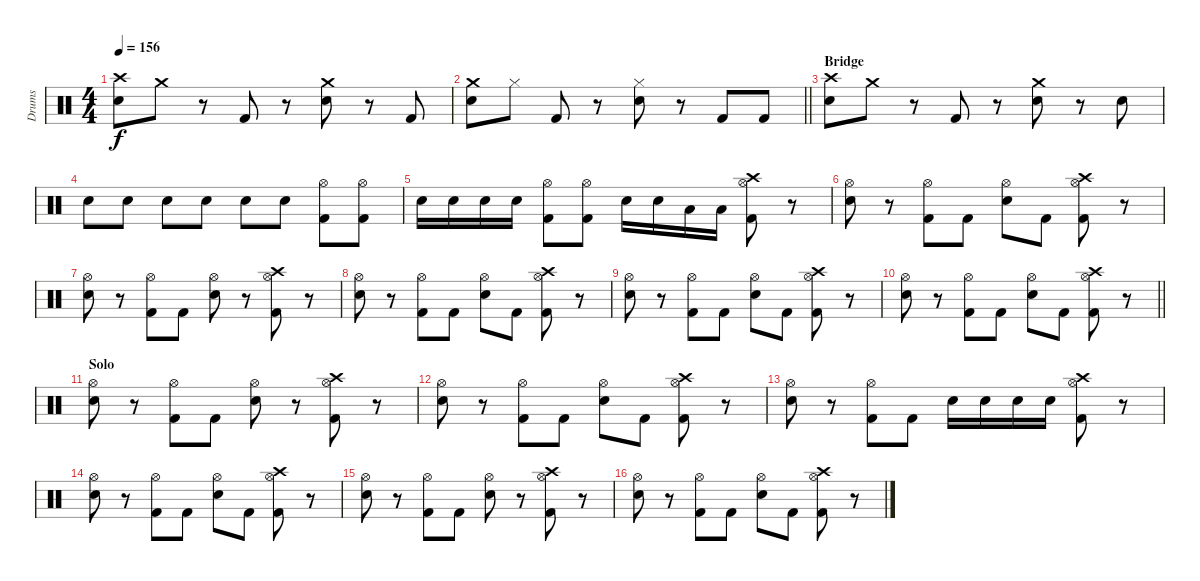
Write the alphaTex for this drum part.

\track ("Drums" "Drums") {instrument percussion}
\staff {score}
\articulation defaults
\ts (4 4)
\tempo 156
\clef neutral
\ks c
("Crash high (hit)" "Electric Snare (hit)").8{dy f} "Crash medium (hit)".8 r.8 "Kick (hit) 2".8 r.8 ("Crash medium (hit)" "Electric Snare (hit)").8 r.8 "Kick (hit) 2".8 |
\barLineRight lightlight
("Crash medium (hit)" "Electric Snare (hit)").8 "Hi-Hat (closed)".8 "Kick (hit) 2".8 r.8 ("Hi-Hat (closed)" "Electric Snare (hit)").8 r.8 "Kick (hit) 2".8 "Kick (hit) 2".8 |
\section ("" "Bridge")
("Crash high (hit)" "Electric Snare (hit)").8 "Crash medium (hit)".8 r.8 "Kick (hit) 2".8 r.8 ("Crash medium (hit)" "Electric Snare (hit)").8 r.8 "Electric Snare (hit)".8 |
"Electric Snare (hit)".8 "Electric Snare (hit)".8 "Electric Snare (hit)".8 "Electric Snare (hit)".8 "Electric Snare (hit)".8 "Electric Snare (hit)".8 ("Hi-Hat (open)" "Kick (hit) 2").8 ("Hi-Hat (open)" "Kick (hit) 2").8 |
"Electric Snare (hit)".16 "Electric Snare (hit)".16 "Electric Snare (hit)".16 "Electric Snare (hit)".16 ("Hi-Hat (open)" "Kick (hit) 2").8 ("Hi-Hat (open)" "Kick (hit) 2").8 "Electric Snare (hit)".16 "Electric Snare (hit)".16 "Low Tom (hit)".16 "Low Tom (hit)".16 ("Crash high (hit)" "Hi-Hat (open)" "Kick (hit) 2").8 r.8 |
("Hi-Hat (open)" "Electric Snare (hit)").8 r.8 ("Hi-Hat (open)" "Kick (hit) 2").8 "Kick (hit) 2".8 ("Hi-Hat (open)" "Electric Snare (hit)").8 "Kick (hit) 2".8 ("Crash high (hit)" "Hi-Hat (open)" "Kick (hit) 2").8 r.8 |
("Hi-Hat (open)" "Electric Snare (hit)").8 r.8 ("Hi-Hat (open)" "Kick (hit) 2").8 "Kick (hit) 2".8 ("Hi-Hat (open)" "Electric Snare (hit)").8 r.8 ("Crash high (hit)" "Hi-Hat (open)" "Kick (hit) 2").8 r.8 |
("Hi-Hat (open)" "Electric Snare (hit)").8 r.8 ("Hi-Hat (open)" "Kick (hit) 2").8 "Kick (hit) 2".8 ("Hi-Hat (open)" "Electric Snare (hit)").8 "Kick (hit) 2".8 ("Crash high (hit)" "Hi-Hat (open)" "Kick (hit) 2").8 r.8 |
("Hi-Hat (open)" "Electric Snare (hit)").8 r.8 ("Hi-Hat (open)" "Kick (hit) 2").8 "Kick (hit) 2".8 ("Hi-Hat (open)" "Electric Snare (hit)").8 "Kick (hit) 2".8 ("Crash high (hit)" "Hi-Hat (open)" "Kick (hit) 2").8 r.8 |
\barLineRight lightlight
("Hi-Hat (open)" "Electric Snare (hit)").8 r.8 ("Hi-Hat (open)" "Kick (hit) 2").8 "Kick (hit) 2".8 ("Hi-Hat (open)" "Electric Snare (hit)").8 "Kick (hit) 2".8 ("Crash high (hit)" "Hi-Hat (open)" "Kick (hit) 2").8 r.8 |
\section ("" "Solo")
("Hi-Hat (open)" "Electric Snare (hit)").8 r.8 ("Hi-Hat (open)" "Kick (hit) 2").8 "Kick (hit) 2".8 ("Hi-Hat (open)" "Electric Snare (hit)").8 r.8 ("Crash high (hit)" "Hi-Hat (open)" "Kick (hit) 2").8 r.8 |
("Hi-Hat (open)" "Electric Snare (hit)").8 r.8 ("Hi-Hat (open)" "Kick (hit) 2").8 "Kick (hit) 2".8 ("Hi-Hat (open)" "Electric Snare (hit)").8 "Kick (hit) 2".8 ("Crash high (hit)" "Hi-Hat (open)" "Kick (hit) 2").8 r.8 |
("Hi-Hat (open)" "Electric Snare (hit)").8 r.8 ("Hi-Hat (open)" "Kick (hit) 2").8 "Kick (hit) 2".8 "Electric Snare (hit)".16 "Electric Snare (hit)".16 "Electric Snare (hit)".16 "Electric Snare (hit)".16 ("Crash high (hit)" "Hi-Hat (open)" "Kick (hit) 2").8 r.8 |
("Hi-Hat (open)" "Electric Snare (hit)").8 r.8 ("Hi-Hat (open)" "Kick (hit) 2").8 "Kick (hit) 2".8 ("Hi-Hat (open)" "Electric Snare (hit)").8 "Kick (hit) 2".8 ("Crash high (hit)" "Hi-Hat (open)" "Kick (hit) 2").8 r.8 |
("Hi-Hat (open)" "Electric Snare (hit)").8 r.8 ("Hi-Hat (open)" "Kick (hit) 2").8 "Kick (hit) 2".8 ("Hi-Hat (open)" "Electric Snare (hit)").8 r.8 ("Crash high (hit)" "Hi-Hat (open)" "Kick (hit) 2").8 r.8 |
("Hi-Hat (open)" "Electric Snare (hit)").8 r.8 ("Hi-Hat (open)" "Kick (hit) 2").8 "Kick (hit) 2".8 ("Hi-Hat (open)" "Electric Snare (hit)").8 "Kick (hit) 2".8 ("Crash high (hit)" "Hi-Hat (open)" "Kick (hit) 2").8 r.8
